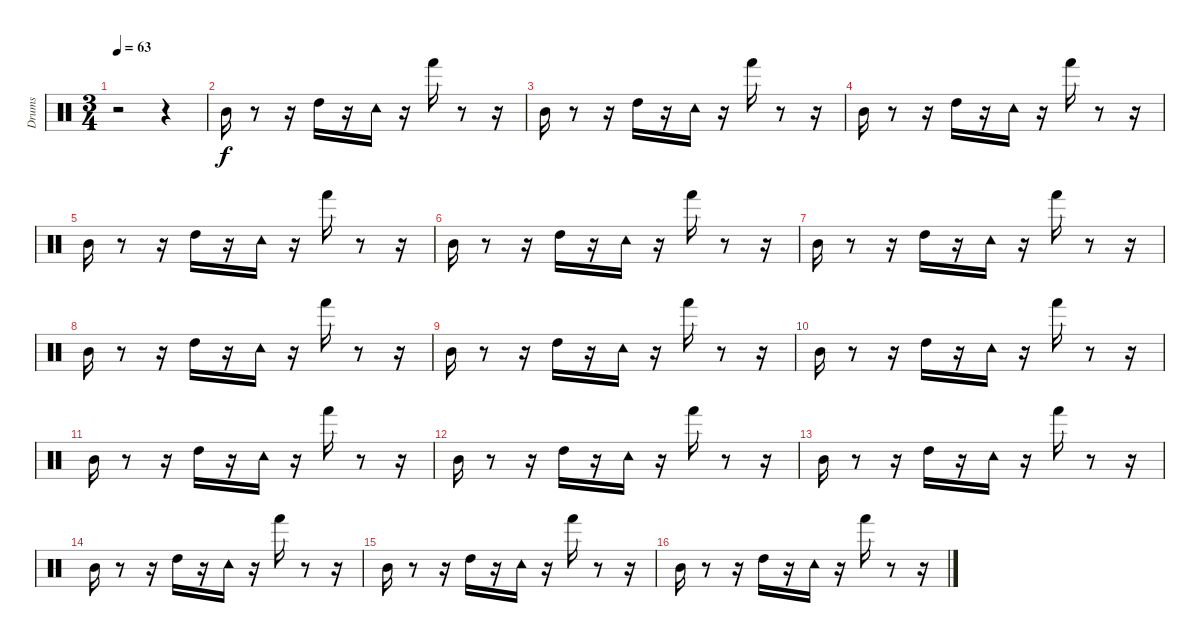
\track ("Drums" "Drums") {instrument percussion}
\staff {score}
\articulation defaults
\ts (3 4)
\tempo 63
\clef neutral
\ks c
r.2{dy f} r.4 |
"Mid Tom (hit)".16 r.8 r.16 "High Tom (hit)".16 r.16 "Tambourine (hit)".16 r.16 "Hand (hit)".16 r.8 r.16 |
"Mid Tom (hit)".16 r.8 r.16 "High Tom (hit)".16 r.16 "Tambourine (hit)".16 r.16 "Hand (hit)".16 r.8 r.16 |
"Mid Tom (hit)".16 r.8 r.16 "High Tom (hit)".16 r.16 "Tambourine (hit)".16 r.16 "Hand (hit)".16 r.8 r.16 |
"Mid Tom (hit)".16 r.8 r.16 "High Tom (hit)".16 r.16 "Tambourine (hit)".16 r.16 "Hand (hit)".16 r.8 r.16 |
"Mid Tom (hit)".16 r.8 r.16 "High Tom (hit)".16 r.16 "Tambourine (hit)".16 r.16 "Hand (hit)".16 r.8 r.16 |
"Mid Tom (hit)".16 r.8 r.16 "High Tom (hit)".16 r.16 "Tambourine (hit)".16 r.16 "Hand (hit)".16 r.8 r.16 |
"Mid Tom (hit)".16 r.8 r.16 "High Tom (hit)".16 r.16 "Tambourine (hit)".16 r.16 "Hand (hit)".16 r.8 r.16 |
"Mid Tom (hit)".16 r.8 r.16 "High Tom (hit)".16 r.16 "Tambourine (hit)".16 r.16 "Hand (hit)".16 r.8 r.16 |
"Mid Tom (hit)".16 r.8 r.16 "High Tom (hit)".16 r.16 "Tambourine (hit)".16 r.16 "Hand (hit)".16 r.8 r.16 |
"Mid Tom (hit)".16 r.8 r.16 "High Tom (hit)".16 r.16 "Tambourine (hit)".16 r.16 "Hand (hit)".16 r.8 r.16 |
"Mid Tom (hit)".16 r.8 r.16 "High Tom (hit)".16 r.16 "Tambourine (hit)".16 r.16 "Hand (hit)".16 r.8 r.16 |
"Mid Tom (hit)".16 r.8 r.16 "High Tom (hit)".16 r.16 "Tambourine (hit)".16 r.16 "Hand (hit)".16 r.8 r.16 |
"Mid Tom (hit)".16 r.8 r.16 "High Tom (hit)".16 r.16 "Tambourine (hit)".16 r.16 "Hand (hit)".16 r.8 r.16 |
"Mid Tom (hit)".16 r.8 r.16 "High Tom (hit)".16 r.16 "Tambourine (hit)".16 r.16 "Hand (hit)".16 r.8 r.16 |
"Mid Tom (hit)".16 r.8 r.16 "High Tom (hit)".16 r.16 "Tambourine (hit)".16 r.16 "Hand (hit)".16 r.8 r.16
